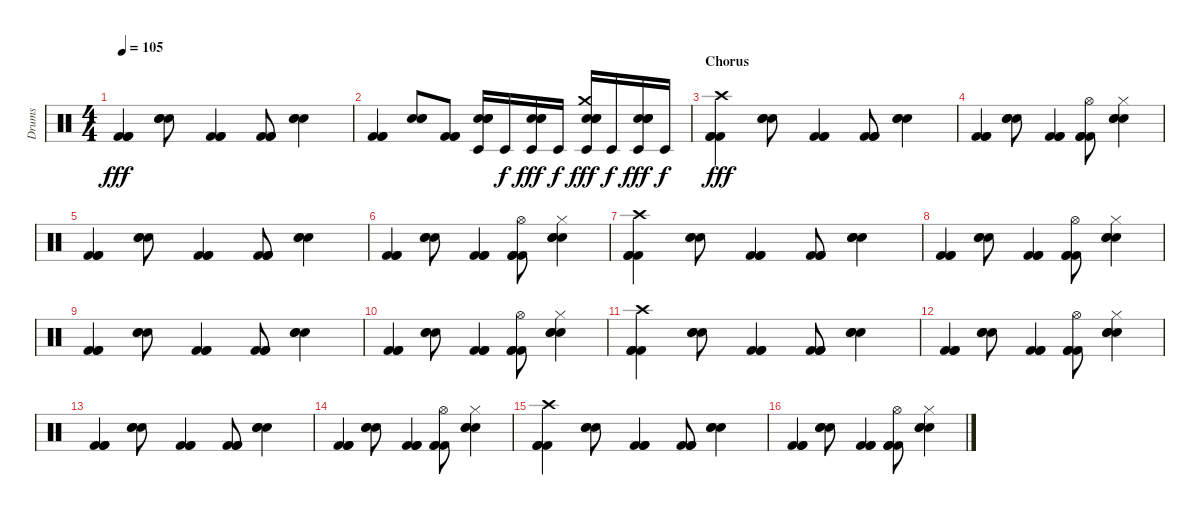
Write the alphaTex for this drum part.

\track ("Drums" "Drums") {instrument percussion}
\staff {score}
\articulation defaults
\ts (4 4)
\tempo 105
\clef neutral
\ks c
("Kick (hit) 2" "Kick (hit) 2" "Kick (hit) 2").4{dy fff} ("Electric Snare (hit)" "Electric Snare (hit)" "Electric Snare (hit)").8 ("Kick (hit) 2" "Kick (hit) 2" "Kick (hit) 2").4 ("Kick (hit) 2" "Kick (hit) 2" "Kick (hit) 2").8 ("Electric Snare (hit)" "Electric Snare (hit)" "Electric Snare (hit)").4 |
("Kick (hit) 2" "Kick (hit) 2" "Kick (hit) 2").4 ("Electric Snare (hit)" "Electric Snare (hit)" "Electric Snare (hit)").8 ("Kick (hit) 2" "Kick (hit) 2" "Kick (hit) 2").8 ("Electric Snare (hit)" "Electric Snare (hit)" "Electric Snare (hit)" "Timbale low (hit)").16 "Timbale low (hit)".16{dy f} ("Electric Snare (hit)" "Electric Snare (hit)" "Electric Snare (hit)" "Timbale low (hit)").16{dy fff} "Timbale low (hit)".16{dy f} ("Electric Snare (hit)" "Electric Snare (hit)" "Electric Snare (hit)" "Timbale low (hit)" "Crash medium (hit)").16{dy fff} "Timbale low (hit)".16{dy f} ("Electric Snare (hit)" "Electric Snare (hit)" "Electric Snare (hit)" "Timbale low (hit)").16{dy fff} "Timbale low (hit)".16{dy f} |
\section ("" "Chorus")
("Kick (hit) 2" "Kick (hit) 2" "Kick (hit) 2" "Crash high (hit)").4{dy fff} ("Electric Snare (hit)" "Electric Snare (hit)" "Electric Snare (hit)").8 ("Kick (hit) 2" "Kick (hit) 2" "Kick (hit) 2").4 ("Kick (hit) 2" "Kick (hit) 2" "Kick (hit) 2").8 ("Electric Snare (hit)" "Electric Snare (hit)" "Electric Snare (hit)").4 |
("Kick (hit) 2" "Kick (hit) 2" "Kick (hit) 2").4 ("Electric Snare (hit)" "Electric Snare (hit)" "Electric Snare (hit)").8 ("Kick (hit) 2" "Kick (hit) 2" "Kick (hit) 2").4 ("Kick (hit) 2" "Kick (hit) 2" "Kick (hit) 2" "Hi-Hat (open)").8 ("Electric Snare (hit)" "Electric Snare (hit)" "Electric Snare (hit)" "Hi-Hat (closed)").4 |
("Kick (hit) 2" "Kick (hit) 2" "Kick (hit) 2").4 ("Electric Snare (hit)" "Electric Snare (hit)" "Electric Snare (hit)").8 ("Kick (hit) 2" "Kick (hit) 2" "Kick (hit) 2").4 ("Kick (hit) 2" "Kick (hit) 2" "Kick (hit) 2").8 ("Electric Snare (hit)" "Electric Snare (hit)" "Electric Snare (hit)").4 |
("Kick (hit) 2" "Kick (hit) 2" "Kick (hit) 2").4 ("Electric Snare (hit)" "Electric Snare (hit)" "Electric Snare (hit)").8 ("Kick (hit) 2" "Kick (hit) 2" "Kick (hit) 2").4 ("Kick (hit) 2" "Kick (hit) 2" "Kick (hit) 2" "Hi-Hat (open)").8 ("Electric Snare (hit)" "Electric Snare (hit)" "Electric Snare (hit)" "Hi-Hat (closed)").4 |
("Kick (hit) 2" "Kick (hit) 2" "Kick (hit) 2" "Crash high (hit)").4 ("Electric Snare (hit)" "Electric Snare (hit)" "Electric Snare (hit)").8 ("Kick (hit) 2" "Kick (hit) 2" "Kick (hit) 2").4 ("Kick (hit) 2" "Kick (hit) 2" "Kick (hit) 2").8 ("Electric Snare (hit)" "Electric Snare (hit)" "Electric Snare (hit)").4 |
("Kick (hit) 2" "Kick (hit) 2" "Kick (hit) 2").4 ("Electric Snare (hit)" "Electric Snare (hit)" "Electric Snare (hit)").8 ("Kick (hit) 2" "Kick (hit) 2" "Kick (hit) 2").4 ("Kick (hit) 2" "Kick (hit) 2" "Kick (hit) 2" "Hi-Hat (open)").8 ("Electric Snare (hit)" "Electric Snare (hit)" "Electric Snare (hit)" "Hi-Hat (closed)").4 |
("Kick (hit) 2" "Kick (hit) 2" "Kick (hit) 2").4 ("Electric Snare (hit)" "Electric Snare (hit)" "Electric Snare (hit)").8 ("Kick (hit) 2" "Kick (hit) 2" "Kick (hit) 2").4 ("Kick (hit) 2" "Kick (hit) 2" "Kick (hit) 2").8 ("Electric Snare (hit)" "Electric Snare (hit)" "Electric Snare (hit)").4 |
("Kick (hit) 2" "Kick (hit) 2" "Kick (hit) 2").4 ("Electric Snare (hit)" "Electric Snare (hit)" "Electric Snare (hit)").8 ("Kick (hit) 2" "Kick (hit) 2" "Kick (hit) 2").4 ("Kick (hit) 2" "Kick (hit) 2" "Kick (hit) 2" "Hi-Hat (open)").8 ("Electric Snare (hit)" "Electric Snare (hit)" "Electric Snare (hit)" "Hi-Hat (closed)").4 |
("Kick (hit) 2" "Kick (hit) 2" "Kick (hit) 2" "Crash high (hit)").4 ("Electric Snare (hit)" "Electric Snare (hit)" "Electric Snare (hit)").8 ("Kick (hit) 2" "Kick (hit) 2" "Kick (hit) 2").4 ("Kick (hit) 2" "Kick (hit) 2" "Kick (hit) 2").8 ("Electric Snare (hit)" "Electric Snare (hit)" "Electric Snare (hit)").4 |
("Kick (hit) 2" "Kick (hit) 2" "Kick (hit) 2").4 ("Electric Snare (hit)" "Electric Snare (hit)" "Electric Snare (hit)").8 ("Kick (hit) 2" "Kick (hit) 2" "Kick (hit) 2").4 ("Kick (hit) 2" "Kick (hit) 2" "Kick (hit) 2" "Hi-Hat (open)").8 ("Electric Snare (hit)" "Electric Snare (hit)" "Electric Snare (hit)" "Hi-Hat (closed)").4 |
("Kick (hit) 2" "Kick (hit) 2" "Kick (hit) 2").4 ("Electric Snare (hit)" "Electric Snare (hit)" "Electric Snare (hit)").8 ("Kick (hit) 2" "Kick (hit) 2" "Kick (hit) 2").4 ("Kick (hit) 2" "Kick (hit) 2" "Kick (hit) 2").8 ("Electric Snare (hit)" "Electric Snare (hit)" "Electric Snare (hit)").4 |
("Kick (hit) 2" "Kick (hit) 2" "Kick (hit) 2").4 ("Electric Snare (hit)" "Electric Snare (hit)" "Electric Snare (hit)").8 ("Kick (hit) 2" "Kick (hit) 2" "Kick (hit) 2").4 ("Kick (hit) 2" "Kick (hit) 2" "Kick (hit) 2" "Hi-Hat (open)").8 ("Electric Snare (hit)" "Electric Snare (hit)" "Electric Snare (hit)" "Hi-Hat (closed)").4 |
("Kick (hit) 2" "Kick (hit) 2" "Kick (hit) 2" "Crash high (hit)").4 ("Electric Snare (hit)" "Electric Snare (hit)" "Electric Snare (hit)").8 ("Kick (hit) 2" "Kick (hit) 2" "Kick (hit) 2").4 ("Kick (hit) 2" "Kick (hit) 2" "Kick (hit) 2").8 ("Electric Snare (hit)" "Electric Snare (hit)" "Electric Snare (hit)").4 |
("Kick (hit) 2" "Kick (hit) 2" "Kick (hit) 2").4 ("Electric Snare (hit)" "Electric Snare (hit)" "Electric Snare (hit)").8 ("Kick (hit) 2" "Kick (hit) 2" "Kick (hit) 2").4 ("Kick (hit) 2" "Kick (hit) 2" "Kick (hit) 2" "Hi-Hat (open)").8 ("Electric Snare (hit)" "Electric Snare (hit)" "Electric Snare (hit)" "Hi-Hat (closed)").4
